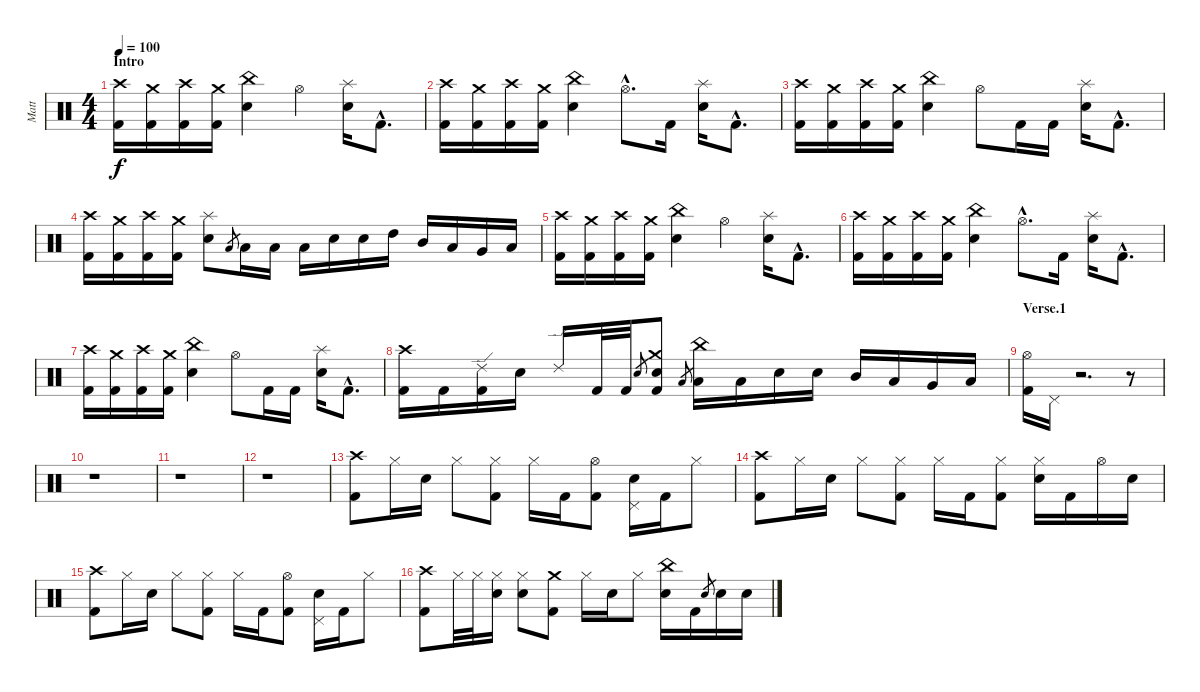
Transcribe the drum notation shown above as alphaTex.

\track ("Matt" "Matt") {instrument percussion}
\staff {score}
\articulation defaults
\ts (4 4)
\section ("" "Intro")
\tempo 100
\clef neutral
\ks c
("Crash high (hit)" "Kick (hit) 2").16{dy f} ("Crash medium (hit)" "Kick (hit) 2").16 ("Crash high (hit)" "Kick (hit) 2").16 ("Crash medium (hit)" "Kick (hit) 2").16 ("China (hit)" "Electric Snare (hit)").4 "Hi-Hat (open)".4 ("Splash (hit)" "Electric Snare (hit)").16 "Kick (hit) 2"{hac}.8{d} |
("Crash high (hit)" "Kick (hit) 2").16 ("Crash medium (hit)" "Kick (hit) 2").16 ("Crash high (hit)" "Kick (hit) 2").16 ("Crash medium (hit)" "Kick (hit) 2").16 ("China (hit)" "Electric Snare (hit)").4 "Hi-Hat (open)"{hac}.8{d} "Kick (hit) 2".16 ("Splash (hit)" "Electric Snare (hit)").16 "Kick (hit) 2"{hac}.8{d} |
("Crash high (hit)" "Kick (hit) 2").16 ("Crash medium (hit)" "Kick (hit) 2").16 ("Crash high (hit)" "Kick (hit) 2").16 ("Crash medium (hit)" "Kick (hit) 2").16 ("China (hit)" "Electric Snare (hit)").4 "Hi-Hat (open)".8 "Kick (hit) 2".16 "Kick (hit) 2".16 ("Splash (hit)" "Electric Snare (hit)").16 "Kick (hit) 2"{hac}.8{d} |
("Crash high (hit)" "Kick (hit) 2").16 ("Crash medium (hit)" "Kick (hit) 2").16 ("Crash high (hit)" "Kick (hit) 2").16 ("Crash medium (hit)" "Kick (hit) 2").16 ("Splash (hit)" "Electric Snare (hit)").8 "Low Tom (hit)".8{gr} "Low Tom (hit)".16 "Low Tom (hit)".16 "Low Tom (hit)".16 "Electric Snare (hit)".16 "Electric Snare (hit)".16 "High Tom (hit)".16 "Mid Tom (hit)".16 "Low Tom (hit)".16 "Very Low Tom (hit)".16 "Low Floor Tom (hit)".16 |
("Crash high (hit)" "Kick (hit) 2").16 ("Crash medium (hit)" "Kick (hit) 2").16 ("Crash high (hit)" "Kick (hit) 2").16 ("Crash medium (hit)" "Kick (hit) 2").16 ("China (hit)" "Electric Snare (hit)").4 "Hi-Hat (open)".4 ("Splash (hit)" "Electric Snare (hit)").16 "Kick (hit) 2"{hac}.8{d} |
("Crash high (hit)" "Kick (hit) 2").16 ("Crash medium (hit)" "Kick (hit) 2").16 ("Crash high (hit)" "Kick (hit) 2").16 ("Crash medium (hit)" "Kick (hit) 2").16 ("China (hit)" "Electric Snare (hit)").4 "Hi-Hat (open)"{hac}.8{d} "Kick (hit) 2".16 ("Splash (hit)" "Electric Snare (hit)").16 "Kick (hit) 2"{hac}.8{d} |
("Crash high (hit)" "Kick (hit) 2").16 ("Crash medium (hit)" "Kick (hit) 2").16 ("Crash high (hit)" "Kick (hit) 2").16 ("Crash medium (hit)" "Kick (hit) 2").16 ("China (hit)" "Electric Snare (hit)").4 "Hi-Hat (open)".8 "Kick (hit) 2".16 "Kick (hit) 2".16 ("Splash (hit)" "Electric Snare (hit)").16 "Kick (hit) 2"{hac}.8{d} |
("Crash high (hit)" "Kick (hit) 2").16 "Kick (hit) 2".16 ("Ride (edge) 2" "Kick (hit) 2").16 "Electric Snare (hit)".16 "Ride (edge) 2".16 "Kick (hit) 2".32 "Kick (hit) 2".32 "Electric Snare (hit)".8{gr} ("Crash medium (hit)" "Electric Snare (hit)" "Kick (hit) 2").8 "Low Tom (hit)".8{gr} ("China (hit)" "Low Tom (hit)").16 "Low Tom (hit)".16 "Electric Snare (hit)".16 "Electric Snare (hit)".16 "Mid Tom (hit)".16 "Low Tom (hit)".16 "Very Low Tom (hit)".16 "Low Floor Tom (hit)".16 |
\section ("" "Verse.1")
("Hi-Hat (open)" "Kick (hit) 2").16 "Pedal Hi-Hat (hit)".16 r.2{d} r.8 |
r.1 |
r.1 |
r.1 |
("Crash high (hit)" "Kick (hit) 2").8 "Hi-Hat (closed)".16 "Electric Snare (hit)".16 "Hi-Hat (closed)".8 ("Hi-Hat (closed)" "Kick (hit) 2").8 "Hi-Hat (closed)".16 "Kick (hit) 2".16 ("Hi-Hat (open)" "Kick (hit) 2").8 ("Pedal Hi-Hat (hit)" "Electric Snare (hit)").16 "Kick (hit) 2".16 "Hi-Hat (closed)".8 |
("Crash high (hit)" "Kick (hit) 2").8 "Hi-Hat (closed)".16 "Electric Snare (hit)".16 "Hi-Hat (closed)".8 ("Hi-Hat (closed)" "Kick (hit) 2").8 "Hi-Hat (closed)".16 "Kick (hit) 2".16 ("Hi-Hat (closed)" "Kick (hit) 2").8 ("Hi-Hat (closed)" "Electric Snare (hit)").16 "Kick (hit) 2".16 "Hi-Hat (open)".16 "Electric Snare (hit)".16 |
("Crash high (hit)" "Kick (hit) 2").8 "Hi-Hat (closed)".16 "Electric Snare (hit)".16 "Hi-Hat (closed)".8 ("Hi-Hat (closed)" "Kick (hit) 2").8 "Hi-Hat (closed)".16 "Kick (hit) 2".16 ("Hi-Hat (open)" "Kick (hit) 2").8 ("Pedal Hi-Hat (hit)" "Electric Snare (hit)").16 "Kick (hit) 2".16 "Hi-Hat (closed)".8 |
("Crash high (hit)" "Kick (hit) 2").8 "Hi-Hat (closed)".32 "Hi-Hat (closed)".32 ("Hi-Hat (closed)" "Electric Snare (hit)").16 ("Hi-Hat (closed)" "Electric Snare (hit)").8 ("Crash medium (hit)" "Kick (hit) 2").8 "Hi-Hat (closed)".16 "Electric Snare (hit)".16 "Hi-Hat (closed)".8 ("China (hit)" "Electric Snare (hit)").16 "Kick (hit) 2".16 "Electric Snare (hit)".8{gr} "Electric Snare (hit)".16 "Electric Snare (hit)".16
